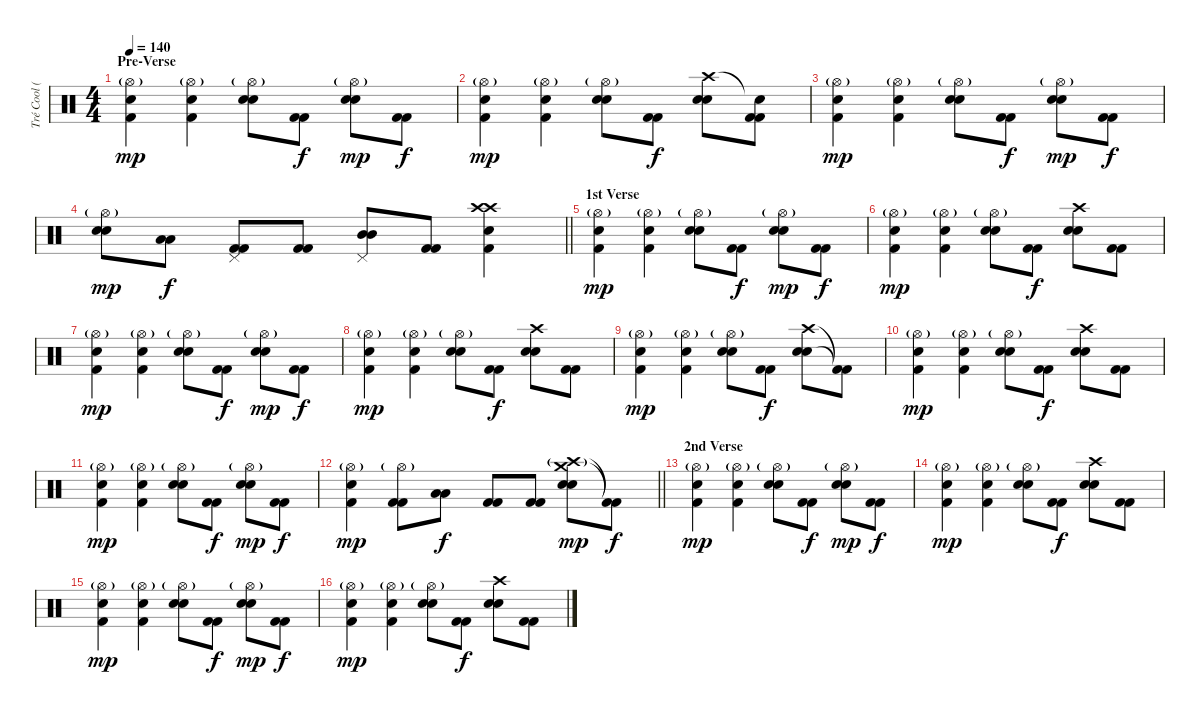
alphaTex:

\track ("Tré Cool (Drums)" "Tré Cool (") {instrument percussion}
\staff {score}
\articulation defaults
\ts (4 4)
\section ("" "Pre-Verse")
\tempo 140
\clef neutral
\ks c
("Hi-Hat (open)"{g} "Electric Snare (hit)" "Kick (hit) 2").4{dy mp} ("Hi-Hat (open)"{g} "Electric Snare (hit)" "Kick (hit) 2").4 ("Hi-Hat (open)"{g} "Electric Snare (hit)" "Electric Snare (hit)").8 ("Kick (hit) 2" "Kick (hit) 2").8{dy f} ("Hi-Hat (open)"{g} "Electric Snare (hit)" "Electric Snare (hit)").8{dy mp} ("Kick (hit) 2" "Kick (hit) 2").8{dy f} |
("Hi-Hat (open)"{g} "Electric Snare (hit)" "Kick (hit) 2").4{dy mp} ("Hi-Hat (open)"{g} "Electric Snare (hit)" "Kick (hit) 2").4 ("Hi-Hat (open)"{g} "Electric Snare (hit)" "Electric Snare (hit)").8 ("Kick (hit) 2" "Kick (hit) 2").8{dy f} ("Crash high (hit)" "Electric Snare (hit)" "Electric Snare (hit)").8 ("Snare (hit)"{t} "Kick (hit) 2" "Kick (hit) 2").8 |
("Hi-Hat (open)"{g} "Electric Snare (hit)" "Kick (hit) 2").4{dy mp} ("Hi-Hat (open)"{g} "Electric Snare (hit)" "Kick (hit) 2").4 ("Hi-Hat (open)"{g} "Electric Snare (hit)" "Electric Snare (hit)").8 ("Kick (hit) 2" "Kick (hit) 2").8{dy f} ("Hi-Hat (open)"{g} "Electric Snare (hit)" "Electric Snare (hit)").8{dy mp} ("Kick (hit) 2" "Kick (hit) 2").8{dy f} |
\barLineRight lightlight
("Hi-Hat (open)"{g} "Electric Snare (hit)" "Electric Snare (hit)").8{dy mp} ("Low Tom (hit)" "Low Tom (hit)").8{dy f} ("Pedal Hi-Hat (hit)" "Kick (hit) 2" "Kick (hit) 2").8 ("Kick (hit) 2" "Kick (hit) 2").8 ("Pedal Hi-Hat (hit)" "Mid Tom (hit)" "Mid Tom (hit)").8 ("Kick (hit) 2" "Kick (hit) 2").8 ("Crash high (hit)" "Crash high (hit)" "Electric Snare (hit)" "Kick (hit) 2").4 |
\section ("" "1st Verse")
("Hi-Hat (open)"{g} "Electric Snare (hit)" "Kick (hit) 2").4{dy mp} ("Hi-Hat (open)"{g} "Electric Snare (hit)" "Kick (hit) 2").4 ("Hi-Hat (open)"{g} "Electric Snare (hit)" "Electric Snare (hit)").8 ("Kick (hit) 2" "Kick (hit) 2").8{dy f} ("Hi-Hat (open)"{g} "Electric Snare (hit)" "Electric Snare (hit)").8{dy mp} ("Kick (hit) 2" "Kick (hit) 2").8{dy f} |
("Hi-Hat (open)"{g} "Electric Snare (hit)" "Kick (hit) 2").4{dy mp} ("Hi-Hat (open)"{g} "Electric Snare (hit)" "Kick (hit) 2").4 ("Hi-Hat (open)"{g} "Electric Snare (hit)" "Electric Snare (hit)").8 ("Kick (hit) 2" "Kick (hit) 2").8{dy f} ("Crash high (hit)" "Electric Snare (hit)" "Electric Snare (hit)").8 ("Kick (hit) 2" "Kick (hit) 2").8 |
("Hi-Hat (open)"{g} "Electric Snare (hit)" "Kick (hit) 2").4{dy mp} ("Hi-Hat (open)"{g} "Electric Snare (hit)" "Kick (hit) 2").4 ("Hi-Hat (open)"{g} "Electric Snare (hit)" "Electric Snare (hit)").8 ("Kick (hit) 2" "Kick (hit) 2").8{dy f} ("Hi-Hat (open)"{g} "Electric Snare (hit)" "Electric Snare (hit)").8{dy mp} ("Kick (hit) 2" "Kick (hit) 2").8{dy f} |
("Hi-Hat (open)"{g} "Electric Snare (hit)" "Kick (hit) 2").4{dy mp} ("Hi-Hat (open)"{g} "Electric Snare (hit)" "Kick (hit) 2").4 ("Hi-Hat (open)"{g} "Electric Snare (hit)" "Electric Snare (hit)").8 ("Kick (hit) 2" "Kick (hit) 2").8{dy f} ("Crash high (hit)" "Electric Snare (hit)" "Electric Snare (hit)").8 ("Kick (hit) 2" "Kick (hit) 2").8 |
("Hi-Hat (open)"{g} "Electric Snare (hit)" "Kick (hit) 2").4{dy mp} ("Hi-Hat (open)"{g} "Electric Snare (hit)" "Kick (hit) 2").4 ("Hi-Hat (open)"{g} "Electric Snare (hit)" "Electric Snare (hit)").8 ("Kick (hit) 2" "Kick (hit) 2").8{dy f} ("Crash high (hit)" "Electric Snare (hit)" "Electric Snare (hit)").8 ("Kick (hit) 2"{t} "Kick (hit) 2"{t}).8 |
("Hi-Hat (open)"{g} "Electric Snare (hit)" "Kick (hit) 2").4{dy mp} ("Hi-Hat (open)"{g} "Electric Snare (hit)" "Kick (hit) 2").4 ("Hi-Hat (open)"{g} "Electric Snare (hit)" "Electric Snare (hit)").8 ("Kick (hit) 2" "Kick (hit) 2").8{dy f} ("Crash high (hit)" "Electric Snare (hit)" "Electric Snare (hit)").8 ("Kick (hit) 2" "Kick (hit) 2").8 |
("Hi-Hat (open)"{g} "Electric Snare (hit)" "Kick (hit) 2").4{dy mp} ("Hi-Hat (open)"{g} "Electric Snare (hit)" "Kick (hit) 2").4 ("Hi-Hat (open)"{g} "Electric Snare (hit)" "Electric Snare (hit)").8 ("Kick (hit) 2" "Kick (hit) 2").8{dy f} ("Hi-Hat (open)"{g} "Electric Snare (hit)" "Electric Snare (hit)").8{dy mp} ("Kick (hit) 2" "Kick (hit) 2").8{dy f} |
\barLineRight lightlight
("Hi-Hat (open)"{g} "Electric Snare (hit)" "Kick (hit) 2").4{dy mp} ("Hi-Hat (open)"{g} "Kick (hit) 2" "Kick (hit) 2").8 ("Low Tom (hit)" "Low Tom (hit)").8{dy f} ("Kick (hit) 2" "Kick (hit) 2").8 ("Kick (hit) 2" "Kick (hit) 2").8 ("Crash high (hit)"{g} "Crash medium (hit)" "Electric Snare (hit)" "Electric Snare (hit)").8{dy mp} ("Kick (hit) 2"{t} "Kick (hit) 2"{t}).8{dy f} |
\section ("" "2nd Verse")
("Hi-Hat (open)"{g} "Electric Snare (hit)" "Kick (hit) 2").4{dy mp} ("Hi-Hat (open)"{g} "Electric Snare (hit)" "Kick (hit) 2").4 ("Hi-Hat (open)"{g} "Electric Snare (hit)" "Electric Snare (hit)").8 ("Kick (hit) 2" "Kick (hit) 2").8{dy f} ("Hi-Hat (open)"{g} "Electric Snare (hit)" "Electric Snare (hit)").8{dy mp} ("Kick (hit) 2" "Kick (hit) 2").8{dy f} |
("Hi-Hat (open)"{g} "Electric Snare (hit)" "Kick (hit) 2").4{dy mp} ("Hi-Hat (open)"{g} "Electric Snare (hit)" "Kick (hit) 2").4 ("Hi-Hat (open)"{g} "Electric Snare (hit)" "Electric Snare (hit)").8 ("Kick (hit) 2" "Kick (hit) 2").8{dy f} ("Crash high (hit)" "Electric Snare (hit)" "Electric Snare (hit)").8 ("Kick (hit) 2" "Kick (hit) 2").8 |
("Hi-Hat (open)"{g} "Electric Snare (hit)" "Kick (hit) 2").4{dy mp} ("Hi-Hat (open)"{g} "Electric Snare (hit)" "Kick (hit) 2").4 ("Hi-Hat (open)"{g} "Electric Snare (hit)" "Electric Snare (hit)").8 ("Kick (hit) 2" "Kick (hit) 2").8{dy f} ("Hi-Hat (open)"{g} "Electric Snare (hit)" "Electric Snare (hit)").8{dy mp} ("Kick (hit) 2" "Kick (hit) 2").8{dy f} |
("Hi-Hat (open)"{g} "Electric Snare (hit)" "Kick (hit) 2").4{dy mp} ("Hi-Hat (open)"{g} "Electric Snare (hit)" "Kick (hit) 2").4 ("Hi-Hat (open)"{g} "Electric Snare (hit)" "Electric Snare (hit)").8 ("Kick (hit) 2" "Kick (hit) 2").8{dy f} ("Crash high (hit)" "Electric Snare (hit)" "Electric Snare (hit)").8 ("Kick (hit) 2" "Kick (hit) 2").8
